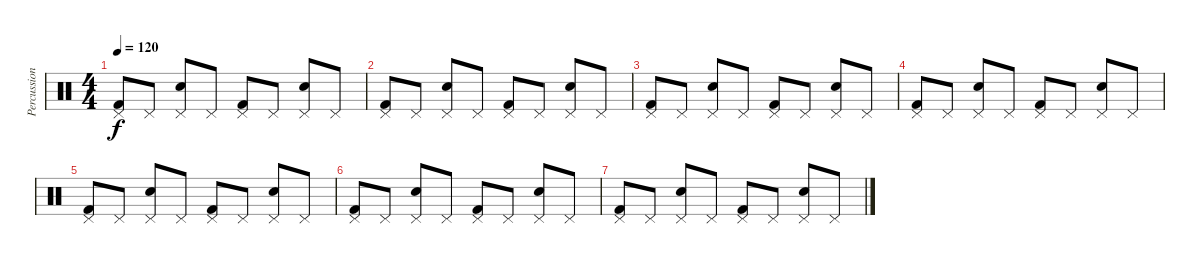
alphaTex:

\track ("Percussions" "Percussion") {instrument percussion}
\staff {score}
\articulation defaults
\ts (4 4)
\tempo 120
\clef neutral
\ks c
("Pedal Hi-Hat (hit)" "Kick (hit) 2").8{dy f} "Pedal Hi-Hat (hit)".8 ("Pedal Hi-Hat (hit)" "Snare (hit) 2").8 "Pedal Hi-Hat (hit)".8 ("Pedal Hi-Hat (hit)" "Kick (hit) 2").8 "Pedal Hi-Hat (hit)".8 ("Pedal Hi-Hat (hit)" "Snare (hit) 2").8 "Pedal Hi-Hat (hit)".8 |
("Pedal Hi-Hat (hit)" "Kick (hit) 2").8 "Pedal Hi-Hat (hit)".8 ("Pedal Hi-Hat (hit)" "Snare (hit) 2").8 "Pedal Hi-Hat (hit)".8 ("Pedal Hi-Hat (hit)" "Kick (hit) 2").8 "Pedal Hi-Hat (hit)".8 ("Pedal Hi-Hat (hit)" "Snare (hit) 2").8 "Pedal Hi-Hat (hit)".8 |
("Pedal Hi-Hat (hit)" "Kick (hit) 2").8 "Pedal Hi-Hat (hit)".8 ("Pedal Hi-Hat (hit)" "Snare (hit) 2").8 "Pedal Hi-Hat (hit)".8 ("Pedal Hi-Hat (hit)" "Kick (hit) 2").8 "Pedal Hi-Hat (hit)".8 ("Pedal Hi-Hat (hit)" "Snare (hit) 2").8 "Pedal Hi-Hat (hit)".8 |
("Pedal Hi-Hat (hit)" "Kick (hit) 2").8 "Pedal Hi-Hat (hit)".8 ("Pedal Hi-Hat (hit)" "Snare (hit) 2").8 "Pedal Hi-Hat (hit)".8 ("Pedal Hi-Hat (hit)" "Kick (hit) 2").8 "Pedal Hi-Hat (hit)".8 ("Pedal Hi-Hat (hit)" "Snare (hit) 2").8 "Pedal Hi-Hat (hit)".8 |
("Pedal Hi-Hat (hit)" "Kick (hit) 2").8 "Pedal Hi-Hat (hit)".8 ("Pedal Hi-Hat (hit)" "Snare (hit) 2").8 "Pedal Hi-Hat (hit)".8 ("Pedal Hi-Hat (hit)" "Kick (hit) 2").8 "Pedal Hi-Hat (hit)".8 ("Pedal Hi-Hat (hit)" "Snare (hit) 2").8 "Pedal Hi-Hat (hit)".8 |
("Pedal Hi-Hat (hit)" "Kick (hit) 2").8 "Pedal Hi-Hat (hit)".8 ("Pedal Hi-Hat (hit)" "Snare (hit) 2").8 "Pedal Hi-Hat (hit)".8 ("Pedal Hi-Hat (hit)" "Kick (hit) 2").8 "Pedal Hi-Hat (hit)".8 ("Pedal Hi-Hat (hit)" "Snare (hit) 2").8 "Pedal Hi-Hat (hit)".8 |
("Pedal Hi-Hat (hit)" "Kick (hit) 2").8 "Pedal Hi-Hat (hit)".8 ("Pedal Hi-Hat (hit)" "Snare (hit) 2").8 "Pedal Hi-Hat (hit)".8 ("Pedal Hi-Hat (hit)" "Kick (hit) 2").8 "Pedal Hi-Hat (hit)".8 ("Pedal Hi-Hat (hit)" "Snare (hit) 2").8 "Pedal Hi-Hat (hit)".8
